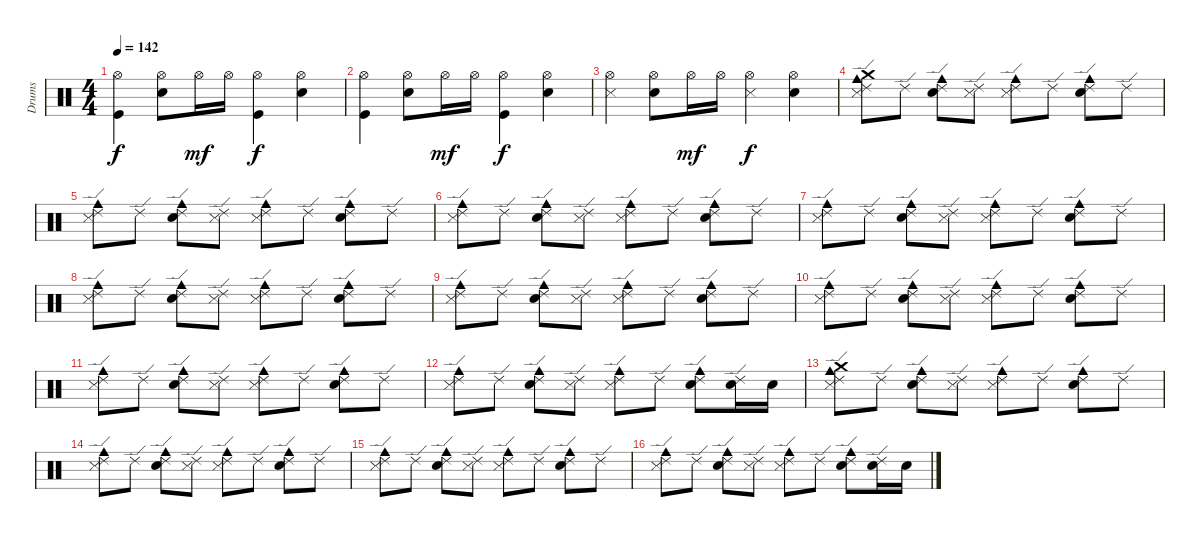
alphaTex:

\track ("Drums" "Drums") {instrument percussion}
\staff {score}
\articulation defaults
\ts (4 4)
\tempo 142
\clef neutral
\ks c
("Hi-Hat (open)" "Kick (hit)").4{dy f} ("Snare (hit) 2" "Hi-Hat (open)").8 "Hi-Hat (open)".16{dy mf} "Hi-Hat (open)".16 ("Kick (hit)" "Hi-Hat (open)").4{dy f} ("Snare (hit) 2" "Hi-Hat (open)").4 |
("Hi-Hat (open)" "Kick (hit)").4 ("Snare (hit) 2" "Hi-Hat (open)").8 "Hi-Hat (open)".16{dy mf} "Hi-Hat (open)".16 ("Kick (hit)" "Hi-Hat (open)").4{dy f} ("Snare (hit) 2" "Hi-Hat (open)").4 |
("Hi-Hat (open)" "Metronome (hit)").4 ("Snare (hit) 2" "Hi-Hat (open)").8 "Hi-Hat (open)".16{dy mf} "Hi-Hat (open)".16 ("Metronome (hit)" "Hi-Hat (open)").4{dy f} ("Snare (hit) 2" "Hi-Hat (open)").4 |
("Cowbell medium (hit)" "Crash medium (hit)" "Ride (edge) 2" "Metronome (hit)").8 "Ride (edge) 2".8 ("Cowbell medium (hit)" "Ride (edge) 2" "Snare (hit) 2").8 ("Ride (edge) 2" "Metronome (hit)").8 ("Cowbell medium (hit)" "Ride (edge) 2" "Metronome (hit)").8 "Ride (edge) 2".8 ("Cowbell medium (hit)" "Ride (edge) 2" "Snare (hit) 2").8 "Ride (edge) 2".8 |
("Cowbell medium (hit)" "Ride (edge) 2" "Metronome (hit)").8 "Ride (edge) 2".8 ("Cowbell medium (hit)" "Ride (edge) 2" "Snare (hit) 2").8 ("Ride (edge) 2" "Metronome (hit)").8 ("Cowbell medium (hit)" "Ride (edge) 2" "Metronome (hit)").8 "Ride (edge) 2".8 ("Cowbell medium (hit)" "Ride (edge) 2" "Snare (hit) 2").8 "Ride (edge) 2".8 |
("Cowbell medium (hit)" "Ride (edge) 2" "Metronome (hit)").8 "Ride (edge) 2".8 ("Cowbell medium (hit)" "Ride (edge) 2" "Snare (hit) 2").8 ("Ride (edge) 2" "Metronome (hit)").8 ("Cowbell medium (hit)" "Ride (edge) 2" "Metronome (hit)").8 "Ride (edge) 2".8 ("Cowbell medium (hit)" "Ride (edge) 2" "Snare (hit) 2").8 "Ride (edge) 2".8 |
("Cowbell medium (hit)" "Ride (edge) 2" "Metronome (hit)").8 "Ride (edge) 2".8 ("Cowbell medium (hit)" "Ride (edge) 2" "Snare (hit) 2").8 ("Ride (edge) 2" "Metronome (hit)").8 ("Cowbell medium (hit)" "Ride (edge) 2" "Metronome (hit)").8 "Ride (edge) 2".8 ("Cowbell medium (hit)" "Ride (edge) 2" "Snare (hit) 2").8 "Ride (edge) 2".8 |
("Cowbell medium (hit)" "Ride (edge) 2" "Metronome (hit)").8 "Ride (edge) 2".8 ("Cowbell medium (hit)" "Ride (edge) 2" "Snare (hit) 2").8 ("Ride (edge) 2" "Metronome (hit)").8 ("Cowbell medium (hit)" "Ride (edge) 2" "Metronome (hit)").8 "Ride (edge) 2".8 ("Cowbell medium (hit)" "Ride (edge) 2" "Snare (hit) 2").8 "Ride (edge) 2".8 |
("Cowbell medium (hit)" "Ride (edge) 2" "Metronome (hit)").8 "Ride (edge) 2".8 ("Cowbell medium (hit)" "Ride (edge) 2" "Snare (hit) 2").8 ("Ride (edge) 2" "Metronome (hit)").8 ("Cowbell medium (hit)" "Ride (edge) 2" "Metronome (hit)").8 "Ride (edge) 2".8 ("Cowbell medium (hit)" "Ride (edge) 2" "Snare (hit) 2").8 "Ride (edge) 2".8 |
("Cowbell medium (hit)" "Ride (edge) 2" "Metronome (hit)").8 "Ride (edge) 2".8 ("Cowbell medium (hit)" "Ride (edge) 2" "Snare (hit) 2").8 ("Ride (edge) 2" "Metronome (hit)").8 ("Cowbell medium (hit)" "Ride (edge) 2" "Metronome (hit)").8 "Ride (edge) 2".8 ("Cowbell medium (hit)" "Ride (edge) 2" "Snare (hit) 2").8 "Ride (edge) 2".8 |
("Cowbell medium (hit)" "Ride (edge) 2" "Metronome (hit)").8 "Ride (edge) 2".8 ("Cowbell medium (hit)" "Ride (edge) 2" "Snare (hit) 2").8 ("Ride (edge) 2" "Metronome (hit)").8 ("Cowbell medium (hit)" "Ride (edge) 2" "Metronome (hit)").8 "Ride (edge) 2".8 ("Cowbell medium (hit)" "Ride (edge) 2" "Snare (hit) 2").8 "Ride (edge) 2".8 |
("Cowbell medium (hit)" "Ride (edge) 2" "Metronome (hit)").8 "Ride (edge) 2".8 ("Cowbell medium (hit)" "Ride (edge) 2" "Snare (hit) 2").8 ("Ride (edge) 2" "Metronome (hit)").8 ("Cowbell medium (hit)" "Ride (edge) 2" "Metronome (hit)").8 "Ride (edge) 2".8 ("Snare (hit) 2" "Cowbell medium (hit)" "Ride (edge) 2").8 ("Snare (hit) 2" "Ride (edge) 2").16 "Snare (hit) 2".16 |
("Crash medium (hit)" "Cowbell medium (hit)" "Ride (edge) 2" "Metronome (hit)").8 "Ride (edge) 2".8 ("Cowbell medium (hit)" "Ride (edge) 2" "Snare (hit) 2").8 ("Ride (edge) 2" "Metronome (hit)").8 ("Cowbell medium (hit)" "Ride (edge) 2" "Metronome (hit)").8 "Ride (edge) 2".8 ("Cowbell medium (hit)" "Ride (edge) 2" "Snare (hit) 2").8 "Ride (edge) 2".8 |
("Cowbell medium (hit)" "Ride (edge) 2" "Metronome (hit)").8 "Ride (edge) 2".8 ("Cowbell medium (hit)" "Ride (edge) 2" "Snare (hit) 2").8 ("Ride (edge) 2" "Metronome (hit)").8 ("Cowbell medium (hit)" "Ride (edge) 2" "Metronome (hit)").8 "Ride (edge) 2".8 ("Cowbell medium (hit)" "Ride (edge) 2" "Snare (hit) 2").8 "Ride (edge) 2".8 |
("Cowbell medium (hit)" "Ride (edge) 2" "Metronome (hit)").8 "Ride (edge) 2".8 ("Cowbell medium (hit)" "Ride (edge) 2" "Snare (hit) 2").8 ("Ride (edge) 2" "Metronome (hit)").8 ("Cowbell medium (hit)" "Ride (edge) 2" "Metronome (hit)").8 "Ride (edge) 2".8 ("Cowbell medium (hit)" "Ride (edge) 2" "Snare (hit) 2").8 "Ride (edge) 2".8 |
("Cowbell medium (hit)" "Ride (edge) 2" "Metronome (hit)").8 "Ride (edge) 2".8 ("Cowbell medium (hit)" "Ride (edge) 2" "Snare (hit) 2").8 ("Ride (edge) 2" "Metronome (hit)").8 ("Cowbell medium (hit)" "Ride (edge) 2" "Metronome (hit)").8 "Ride (edge) 2".8 ("Snare (hit) 2" "Cowbell medium (hit)" "Ride (edge) 2").8 ("Snare (hit) 2" "Ride (edge) 2").16 "Snare (hit) 2".16
